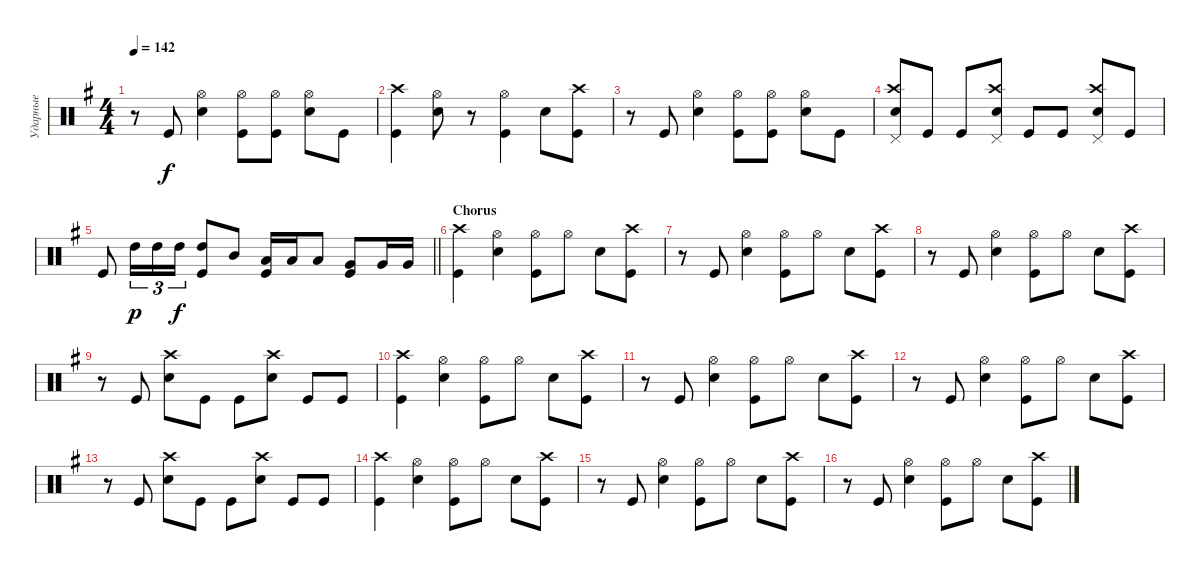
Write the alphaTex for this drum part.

\track ("Ударные" "Ударные") {instrument percussion}
\staff {score}
\articulation defaults
\ts (4 4)
\tempo 142
\clef neutral
\ks eminor
r.8{dy f} "Kick (hit)".8 ("Snare (hit) 2" "Hi-Hat (open)").4 ("Kick (hit)" "Hi-Hat (open)").8 ("Kick (hit)" "Hi-Hat (open)").8 ("Snare (hit) 2" "Hi-Hat (open)").8 "Kick (hit)".8 |
("Kick (hit)" "Crash high (hit)").4 ("Snare (hit) 2" "Hi-Hat (open)").8 r.8 ("Kick (hit)" "Hi-Hat (open)").4 "Snare (hit) 2".8 ("Kick (hit)" "Crash high (hit)").8 |
r.8 "Kick (hit)".8 ("Snare (hit) 2" "Hi-Hat (open)").4 ("Kick (hit)" "Hi-Hat (open)").8 ("Kick (hit)" "Hi-Hat (open)").8 ("Snare (hit) 2" "Hi-Hat (open)").8 "Kick (hit)".8 |
("Snare (hit) 2" "Crash high (hit)" "Pedal Hi-Hat (hit)").8 "Kick (hit)".8 "Kick (hit)".8 ("Snare (hit) 2" "Crash high (hit)" "Pedal Hi-Hat (hit)").8 "Kick (hit)".8 "Kick (hit)".8 ("Snare (hit) 2" "Crash high (hit)" "Pedal Hi-Hat (hit)").8 "Kick (hit)".8 |
\barLineRight lightlight "Kick (hit)".8 "High Tom (hit)".16{tu (3 2) dy p} "High Tom (hit)".16{tu (3 2)} "High Tom (hit)".16{tu (3 2) dy f}
("High Tom (hit)" "Kick (hit)").8 "Mid Tom (hit)".8 ("Low Tom (hit)" "Kick (hit)").16 "Low Tom (hit)".16 "Low Tom (hit)".8 ("Very Low Tom (hit)" "Kick (hit)").8 "Very Low Tom (hit)".16 "Very Low Tom (hit)".16 |
\section ("" "Chorus")
("Kick (hit)" "Crash high (hit)").4 ("Snare (hit) 2" "Hi-Hat (open)").4 ("Kick (hit)" "Hi-Hat (open)").8 "Hi-Hat (open)".8 "Snare (hit) 2".8 ("Kick (hit)" "Crash high (hit)").8 |
r.8 "Kick (hit)".8 ("Snare (hit) 2" "Hi-Hat (open)").4 ("Kick (hit)" "Hi-Hat (open)").8 "Hi-Hat (open)".8 "Snare (hit) 2".8 ("Kick (hit)" "Crash high (hit)").8 |
r.8 "Kick (hit)".8 ("Snare (hit) 2" "Hi-Hat (open)").4 ("Kick (hit)" "Hi-Hat (open)").8 "Hi-Hat (open)".8 "Snare (hit) 2".8 ("Kick (hit)" "Crash high (hit)").8 |
r.8 "Kick (hit)".8 ("Snare (hit) 2" "Crash high (hit)").8 "Kick (hit)".8 "Kick (hit)".8 ("Snare (hit) 2" "Crash high (hit)").8 "Kick (hit)".8 "Kick (hit)".8 |
("Kick (hit)" "Crash high (hit)").4 ("Snare (hit) 2" "Hi-Hat (open)").4 ("Kick (hit)" "Hi-Hat (open)").8 "Hi-Hat (open)".8 "Snare (hit) 2".8 ("Kick (hit)" "Crash high (hit)").8 |
r.8 "Kick (hit)".8 ("Snare (hit) 2" "Hi-Hat (open)").4 ("Kick (hit)" "Hi-Hat (open)").8 "Hi-Hat (open)".8 "Snare (hit) 2".8 ("Kick (hit)" "Crash high (hit)").8 |
r.8 "Kick (hit)".8 ("Snare (hit) 2" "Hi-Hat (open)").4 ("Kick (hit)" "Hi-Hat (open)").8 "Hi-Hat (open)".8 "Snare (hit) 2".8 ("Kick (hit)" "Crash high (hit)").8 |
r.8 "Kick (hit)".8 ("Snare (hit) 2" "Crash high (hit)").8 "Kick (hit)".8 "Kick (hit)".8 ("Snare (hit) 2" "Crash high (hit)").8 "Kick (hit)".8 "Kick (hit)".8 |
("Kick (hit)" "Crash high (hit)").4 ("Snare (hit) 2" "Hi-Hat (open)").4 ("Kick (hit)" "Hi-Hat (open)").8 "Hi-Hat (open)".8 "Snare (hit) 2".8 ("Kick (hit)" "Crash high (hit)").8 |
r.8 "Kick (hit)".8 ("Snare (hit) 2" "Hi-Hat (open)").4 ("Kick (hit)" "Hi-Hat (open)").8 "Hi-Hat (open)".8 "Snare (hit) 2".8 ("Kick (hit)" "Crash high (hit)").8 |
r.8 "Kick (hit)".8 ("Snare (hit) 2" "Hi-Hat (open)").4 ("Kick (hit)" "Hi-Hat (open)").8 "Hi-Hat (open)".8 "Snare (hit) 2".8 ("Kick (hit)" "Crash high (hit)").8
